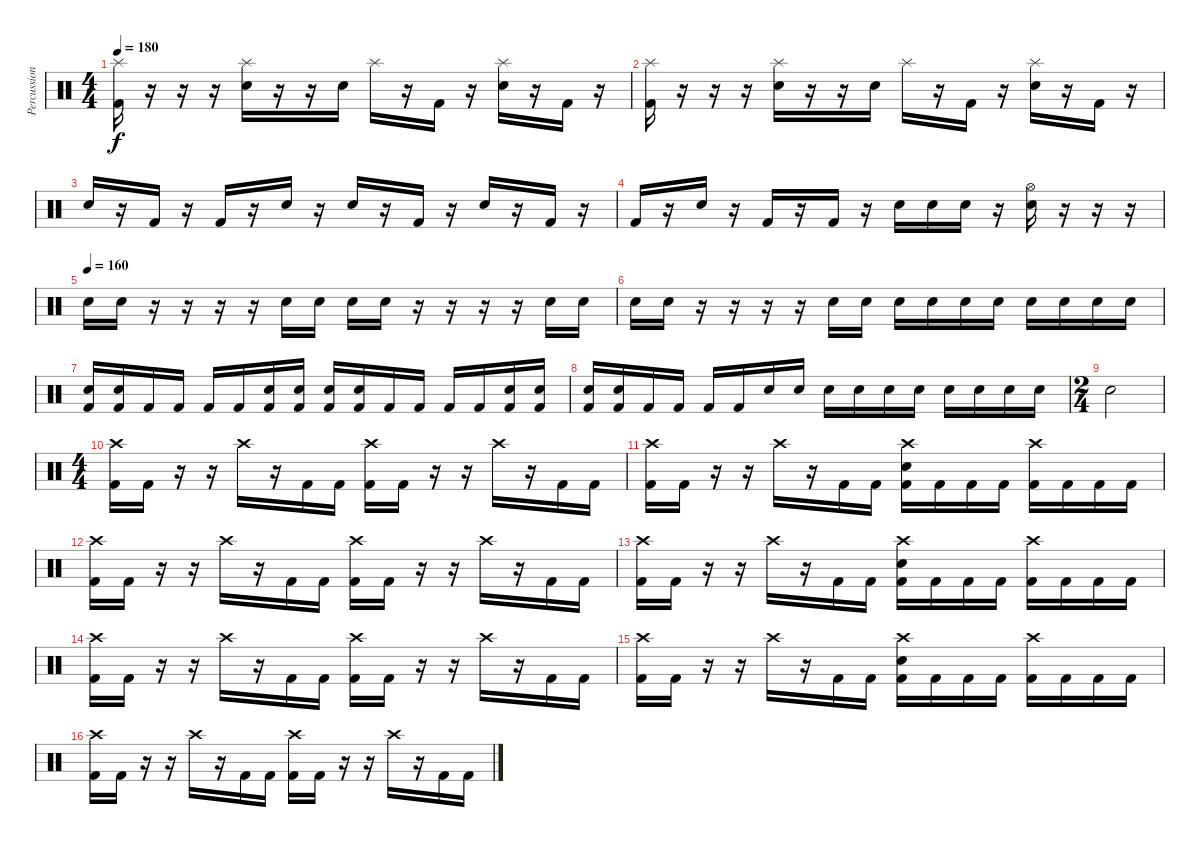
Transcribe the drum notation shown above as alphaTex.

\track ("Percussion" "Percussion") {instrument percussion}
\staff {score}
\articulation defaults
\ts (4 4)
\tempo 180
\clef neutral
\ks c
("Splash (hit)" "Kick (hit) 2").16{dy f} r.16 r.16 r.16 ("Splash (hit)" "Electric Snare (hit)").16 r.16 r.16 "Electric Snare (hit)".16 "Splash (hit)".16 r.16 "Kick (hit) 2".16 r.16 ("Splash (hit)" "Electric Snare (hit)").16 r.16 "Kick (hit) 2".16 r.16 |
("Splash (hit)" "Kick (hit) 2").16 r.16 r.16 r.16 ("Splash (hit)" "Electric Snare (hit)").16 r.16 r.16 "Electric Snare (hit)".16 "Splash (hit)".16 r.16 "Kick (hit) 2".16 r.16 ("Splash (hit)" "Electric Snare (hit)").16 r.16 "Kick (hit) 2".16 r.16 |
"Electric Snare (hit)".16 r.16 "Kick (hit) 2".16 r.16 "Kick (hit) 2".16 r.16 "Electric Snare (hit)".16 r.16 "Electric Snare (hit)".16 r.16 "Kick (hit) 2".16 r.16 "Electric Snare (hit)".16 r.16 "Kick (hit) 2".16 r.16 |
"Kick (hit) 2".16 r.16 "Electric Snare (hit)".16 r.16 "Kick (hit) 2".16 r.16 "Kick (hit) 2".16 r.16 "Electric Snare (hit)".16 "Electric Snare (hit)".16 "Electric Snare (hit)".16 r.16 ("Hi-Hat (open)" "Electric Snare (hit)").16 r.16 r.16 r.16 |
\tempo (160)
"Electric Snare (hit)".16 "Electric Snare (hit)".16 r.16 r.16 r.16 r.16 "Electric Snare (hit)".16 "Electric Snare (hit)".16 "Electric Snare (hit)".16 "Electric Snare (hit)".16 r.16 r.16 r.16 r.16 "Electric Snare (hit)".16 "Electric Snare (hit)".16 |
"Electric Snare (hit)".16 "Electric Snare (hit)".16 r.16 r.16 r.16 r.16 "Electric Snare (hit)".16 "Electric Snare (hit)".16 "Electric Snare (hit)".16 "Electric Snare (hit)".16 "Electric Snare (hit)".16 "Electric Snare (hit)".16 "Electric Snare (hit)".16 "Electric Snare (hit)".16 "Electric Snare (hit)".16 "Electric Snare (hit)".16 |
("Electric Snare (hit)" "Kick (hit) 2").16 ("Electric Snare (hit)" "Kick (hit) 2").16 "Kick (hit) 2".16 "Kick (hit) 2".16 "Kick (hit) 2".16 "Kick (hit) 2".16 ("Electric Snare (hit)" "Kick (hit) 2").16 ("Electric Snare (hit)" "Kick (hit) 2").16 ("Electric Snare (hit)" "Kick (hit) 2").16 ("Electric Snare (hit)" "Kick (hit) 2").16 "Kick (hit) 2".16 "Kick (hit) 2".16 "Kick (hit) 2".16 "Kick (hit) 2".16 ("Electric Snare (hit)" "Kick (hit) 2").16 ("Electric Snare (hit)" "Kick (hit) 2").16 |
("Electric Snare (hit)" "Kick (hit) 2").16 ("Electric Snare (hit)" "Kick (hit) 2").16 "Kick (hit) 2".16 "Kick (hit) 2".16 "Kick (hit) 2".16 "Kick (hit) 2".16 "Electric Snare (hit)".16 "Electric Snare (hit)".16 "Electric Snare (hit)".16 "Electric Snare (hit)".16 "Electric Snare (hit)".16 "Electric Snare (hit)".16 "Electric Snare (hit)".16 "Electric Snare (hit)".16 "Electric Snare (hit)".16 "Electric Snare (hit)".16 |
\ts (2 4)
"Electric Snare (hit)".2 |
\ts (4 4)
("Crash high (hit)" "Kick (hit) 2").16 "Kick (hit) 2".16 r.16 r.16 "Crash high (hit)".16 r.16 "Kick (hit) 2".16 "Kick (hit) 2".16 ("Crash high (hit)" "Kick (hit) 2").16 "Kick (hit) 2".16 r.16 r.16 "Crash high (hit)".16 r.16 "Kick (hit) 2".16 "Kick (hit) 2".16 |
("Crash high (hit)" "Kick (hit) 2").16 "Kick (hit) 2".16 r.16 r.16 "Crash high (hit)".16 r.16 "Kick (hit) 2".16 "Kick (hit) 2".16 ("Crash high (hit)" "Electric Snare (hit)" "Kick (hit) 2").16 "Kick (hit) 2".16 "Kick (hit) 2".16 "Kick (hit) 2".16 ("Crash high (hit)" "Kick (hit) 2").16 "Kick (hit) 2".16 "Kick (hit) 2".16 "Kick (hit) 2".16 |
("Crash high (hit)" "Kick (hit) 2").16 "Kick (hit) 2".16 r.16 r.16 "Crash high (hit)".16 r.16 "Kick (hit) 2".16 "Kick (hit) 2".16 ("Crash high (hit)" "Kick (hit) 2").16 "Kick (hit) 2".16 r.16 r.16 "Crash high (hit)".16 r.16 "Kick (hit) 2".16 "Kick (hit) 2".16 |
("Crash high (hit)" "Kick (hit) 2").16 "Kick (hit) 2".16 r.16 r.16 "Crash high (hit)".16 r.16 "Kick (hit) 2".16 "Kick (hit) 2".16 ("Crash high (hit)" "Electric Snare (hit)" "Kick (hit) 2").16 "Kick (hit) 2".16 "Kick (hit) 2".16 "Kick (hit) 2".16 ("Crash high (hit)" "Kick (hit) 2").16 "Kick (hit) 2".16 "Kick (hit) 2".16 "Kick (hit) 2".16 |
("Crash high (hit)" "Kick (hit) 2").16 "Kick (hit) 2".16 r.16 r.16 "Crash high (hit)".16 r.16 "Kick (hit) 2".16 "Kick (hit) 2".16 ("Crash high (hit)" "Kick (hit) 2").16 "Kick (hit) 2".16 r.16 r.16 "Crash high (hit)".16 r.16 "Kick (hit) 2".16 "Kick (hit) 2".16 |
("Crash high (hit)" "Kick (hit) 2").16 "Kick (hit) 2".16 r.16 r.16 "Crash high (hit)".16 r.16 "Kick (hit) 2".16 "Kick (hit) 2".16 ("Crash high (hit)" "Electric Snare (hit)" "Kick (hit) 2").16 "Kick (hit) 2".16 "Kick (hit) 2".16 "Kick (hit) 2".16 ("Crash high (hit)" "Kick (hit) 2").16 "Kick (hit) 2".16 "Kick (hit) 2".16 "Kick (hit) 2".16 |
("Crash high (hit)" "Kick (hit) 2").16 "Kick (hit) 2".16 r.16 r.16 "Crash high (hit)".16 r.16 "Kick (hit) 2".16 "Kick (hit) 2".16 ("Crash high (hit)" "Kick (hit) 2").16 "Kick (hit) 2".16 r.16 r.16 "Crash high (hit)".16 r.16 "Kick (hit) 2".16 "Kick (hit) 2".16
